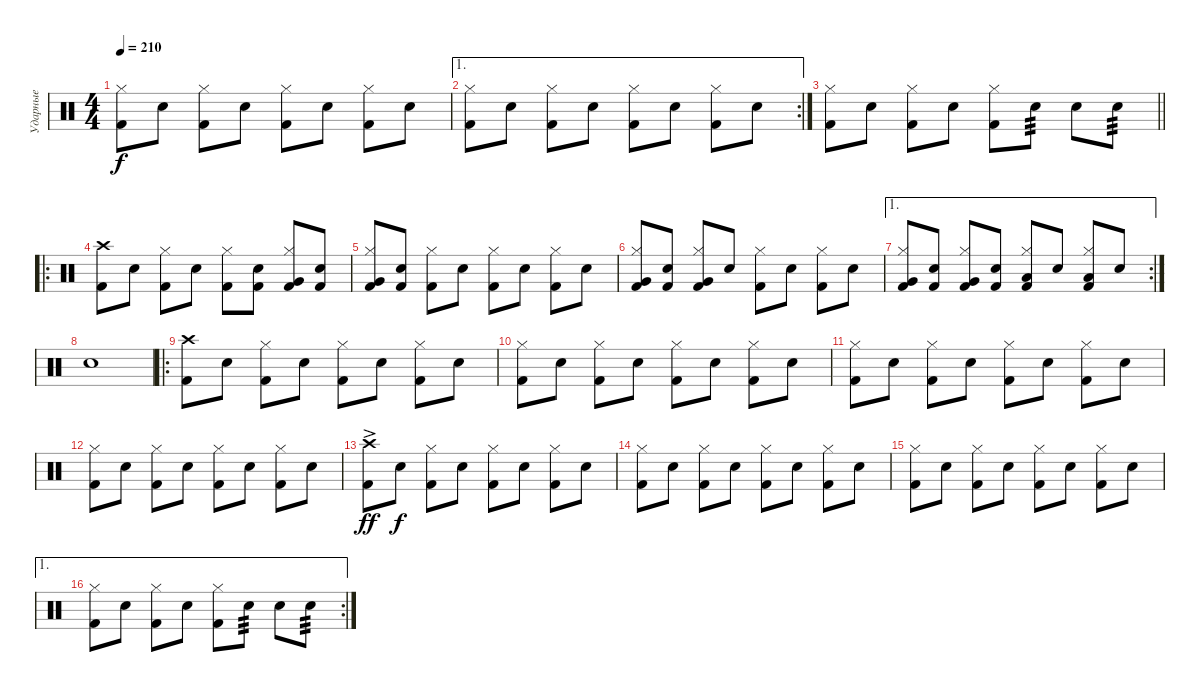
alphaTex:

\track ("Ударные" "Ударные") {instrument percussion}
\staff {score}
\articulation defaults
\ts (4 4)
\tempo 210
\clef neutral
\ks c
("Kick (hit) 2" "Hi-Hat (closed)").8{dy f} "Snare (hit) 2".8 ("Kick (hit) 2" "Hi-Hat (closed)").8 "Snare (hit) 2".8 ("Kick (hit) 2" "Hi-Hat (closed)").8 "Snare (hit) 2".8 ("Kick (hit) 2" "Hi-Hat (closed)").8 "Snare (hit) 2".8 |
\ae 1
\rc 2
("Kick (hit) 2" "Hi-Hat (closed)").8 "Snare (hit) 2".8 ("Kick (hit) 2" "Hi-Hat (closed)").8 "Snare (hit) 2".8 ("Kick (hit) 2" "Hi-Hat (closed)").8 "Snare (hit) 2".8 ("Kick (hit) 2" "Hi-Hat (closed)").8 "Snare (hit) 2".8 |
\barLineRight lightlight
("Kick (hit) 2" "Hi-Hat (closed)").8 "Snare (hit) 2".8 ("Kick (hit) 2" "Hi-Hat (closed)").8 "Snare (hit) 2".8 ("Kick (hit) 2" "Hi-Hat (closed)").8 "Snare (hit) 2".8{tp 3} "Snare (hit) 2".8 "Snare (hit) 2".8{tp 3} |
\ro
("Kick (hit) 2" "Crash high (hit)").8 "Snare (hit) 2".8 ("Kick (hit) 2" "Hi-Hat (closed)").8 "Snare (hit) 2".8 ("Kick (hit) 2" "Hi-Hat (closed)").8 ("Kick (hit) 2" "Snare (hit) 2").8 ("Kick (hit) 2" "Very Low Tom (hit)" "Hi-Hat (closed)").8 ("Kick (hit) 2" "Snare (hit) 2").8 |
("Kick (hit) 2" "Very Low Tom (hit)" "Hi-Hat (closed)").8 ("Kick (hit) 2" "Snare (hit) 2").8 ("Kick (hit) 2" "Hi-Hat (closed)").8 "Snare (hit) 2".8 ("Kick (hit) 2" "Hi-Hat (closed)").8 "Snare (hit) 2".8 ("Kick (hit) 2" "Hi-Hat (closed)").8 "Snare (hit) 2".8 |
("Kick (hit) 2" "Very Low Tom (hit)" "Hi-Hat (closed)").8 ("Kick (hit) 2" "Snare (hit) 2").8 ("Kick (hit) 2" "Very Low Tom (hit)" "Hi-Hat (closed)").8 "Snare (hit) 2".8 ("Kick (hit) 2" "Hi-Hat (closed)").8 "Snare (hit) 2".8 ("Kick (hit) 2" "Hi-Hat (closed)").8 "Snare (hit) 2".8 |
\ae 1
\rc 2
("Kick (hit) 2" "Very Low Tom (hit)" "Hi-Hat (closed)").8 ("Kick (hit) 2" "Snare (hit) 2").8 ("Kick (hit) 2" "Very Low Tom (hit)" "Hi-Hat (closed)").8 ("Kick (hit) 2" "Snare (hit) 2").8 ("Kick (hit) 2" "Low Floor Tom (hit)" "Hi-Hat (closed)").8 "Snare (hit) 2".8 ("Kick (hit) 2" "Low Floor Tom (hit)" "Hi-Hat (closed)").8 "Snare (hit) 2".8 |
"Snare (hit) 2".1 |
\ro
("Kick (hit) 2" "Crash high (hit)").8 "Snare (hit) 2".8 ("Kick (hit) 2" "Hi-Hat (closed)").8 "Snare (hit) 2".8 ("Kick (hit) 2" "Hi-Hat (closed)").8 "Snare (hit) 2".8 ("Kick (hit) 2" "Hi-Hat (closed)").8 "Snare (hit) 2".8 |
("Kick (hit) 2" "Hi-Hat (closed)").8 "Snare (hit) 2".8 ("Kick (hit) 2" "Hi-Hat (closed)").8 "Snare (hit) 2".8 ("Kick (hit) 2" "Hi-Hat (closed)").8 "Snare (hit) 2".8 ("Kick (hit) 2" "Hi-Hat (closed)").8 "Snare (hit) 2".8 |
("Kick (hit) 2" "Hi-Hat (closed)").8 "Snare (hit) 2".8 ("Kick (hit) 2" "Hi-Hat (closed)").8 "Snare (hit) 2".8 ("Kick (hit) 2" "Hi-Hat (closed)").8 "Snare (hit) 2".8 ("Kick (hit) 2" "Hi-Hat (closed)").8 "Snare (hit) 2".8 |
("Kick (hit) 2" "Hi-Hat (closed)").8 "Snare (hit) 2".8 ("Kick (hit) 2" "Hi-Hat (closed)").8 "Snare (hit) 2".8 ("Kick (hit) 2" "Hi-Hat (closed)").8 "Snare (hit) 2".8 ("Kick (hit) 2" "Hi-Hat (closed)").8 "Snare (hit) 2".8 |
("Kick (hit) 2" "Crash high (hit)"{ac}).8{dy ff} "Snare (hit) 2".8{dy f} ("Kick (hit) 2" "Hi-Hat (closed)").8 "Snare (hit) 2".8 ("Kick (hit) 2" "Hi-Hat (closed)").8 "Snare (hit) 2".8 ("Kick (hit) 2" "Hi-Hat (closed)").8 "Snare (hit) 2".8 |
("Kick (hit) 2" "Hi-Hat (closed)").8 "Snare (hit) 2".8 ("Kick (hit) 2" "Hi-Hat (closed)").8 "Snare (hit) 2".8 ("Kick (hit) 2" "Hi-Hat (closed)").8 "Snare (hit) 2".8 ("Kick (hit) 2" "Hi-Hat (closed)").8 "Snare (hit) 2".8 |
("Kick (hit) 2" "Hi-Hat (closed)").8 "Snare (hit) 2".8 ("Kick (hit) 2" "Hi-Hat (closed)").8 "Snare (hit) 2".8 ("Kick (hit) 2" "Hi-Hat (closed)").8 "Snare (hit) 2".8 ("Kick (hit) 2" "Hi-Hat (closed)").8 "Snare (hit) 2".8 |
\ae 1
\rc 2
("Kick (hit) 2" "Hi-Hat (closed)").8 "Snare (hit) 2".8 ("Kick (hit) 2" "Hi-Hat (closed)").8 "Snare (hit) 2".8 ("Kick (hit) 2" "Hi-Hat (closed)").8 "Snare (hit) 2".8{tp 3} "Snare (hit) 2".8 "Snare (hit) 2".8{tp 3}
